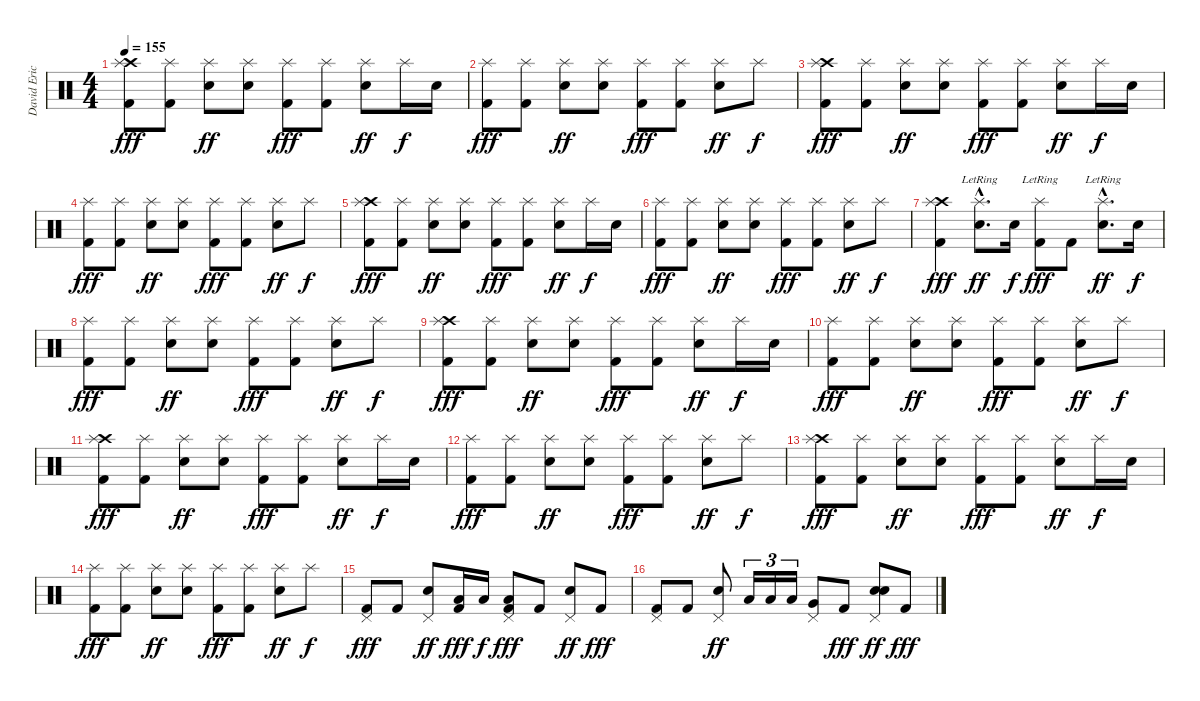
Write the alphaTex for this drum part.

\track ("David Eric Grohl" "David Eric") {instrument percussion}
\staff {score}
\articulation defaults
\ts (4 4)
\tempo 155
\clef neutral
\ks c
("Crash high (hit)" "Splash (hit)" "Kick (hit) 2").8{dy fff} ("Splash (hit)" "Kick (hit) 2").8 ("Splash (hit)" "Electric Snare (hit)").8{dy ff} ("Splash (hit)" "Electric Snare (hit)").8 ("Splash (hit)" "Kick (hit) 2").8{dy fff} ("Splash (hit)" "Kick (hit) 2").8 ("Splash (hit)" "Electric Snare (hit)").8{dy ff} "Splash (hit)".16{dy f} "Electric Snare (hit)".16 |
("Splash (hit)" "Kick (hit) 2").8{dy fff} ("Splash (hit)" "Kick (hit) 2").8 ("Splash (hit)" "Electric Snare (hit)").8{dy ff} ("Splash (hit)" "Electric Snare (hit)").8 ("Splash (hit)" "Kick (hit) 2").8{dy fff} ("Splash (hit)" "Kick (hit) 2").8 ("Splash (hit)" "Electric Snare (hit)").8{dy ff} "Splash (hit)".8{dy f} |
("Crash high (hit)" "Splash (hit)" "Kick (hit) 2").8{dy fff} ("Splash (hit)" "Kick (hit) 2").8 ("Splash (hit)" "Electric Snare (hit)").8{dy ff} ("Splash (hit)" "Electric Snare (hit)").8 ("Splash (hit)" "Kick (hit) 2").8{dy fff} ("Splash (hit)" "Kick (hit) 2").8 ("Splash (hit)" "Electric Snare (hit)").8{dy ff} "Splash (hit)".16{dy f} "Electric Snare (hit)".16 |
("Splash (hit)" "Kick (hit) 2").8{dy fff} ("Splash (hit)" "Kick (hit) 2").8 ("Splash (hit)" "Electric Snare (hit)").8{dy ff} ("Splash (hit)" "Electric Snare (hit)").8 ("Splash (hit)" "Kick (hit) 2").8{dy fff} ("Splash (hit)" "Kick (hit) 2").8 ("Splash (hit)" "Electric Snare (hit)").8{dy ff} "Splash (hit)".8{dy f} |
("Crash high (hit)" "Splash (hit)" "Kick (hit) 2").8{dy fff} ("Splash (hit)" "Kick (hit) 2").8 ("Splash (hit)" "Electric Snare (hit)").8{dy ff} ("Splash (hit)" "Electric Snare (hit)").8 ("Splash (hit)" "Kick (hit) 2").8{dy fff} ("Splash (hit)" "Kick (hit) 2").8 ("Splash (hit)" "Electric Snare (hit)").8{dy ff} "Splash (hit)".16{dy f} "Electric Snare (hit)".16 |
("Splash (hit)" "Kick (hit) 2").8{dy fff} ("Splash (hit)" "Kick (hit) 2").8 ("Splash (hit)" "Electric Snare (hit)").8{dy ff} ("Splash (hit)" "Electric Snare (hit)").8 ("Splash (hit)" "Kick (hit) 2").8{dy fff} ("Splash (hit)" "Kick (hit) 2").8 ("Splash (hit)" "Electric Snare (hit)").8{dy ff} "Splash (hit)".8{dy f} |
("Crash high (hit)" "Splash (hit)" "Kick (hit) 2").4{dy fff} ("Splash (hit)"{hac lr} "Electric Snare (hit)"{hac}).8{d dy ff} "Electric Snare (hit)".16{dy f} ("Splash (hit)"{lr} "Kick (hit) 2").8{dy fff} "Kick (hit) 2".8 ("Splash (hit)"{hac lr} "Electric Snare (hit)"{hac}).8{d dy ff} "Electric Snare (hit)".16{dy f} |
("Splash (hit)" "Kick (hit) 2").8{dy fff} ("Splash (hit)" "Kick (hit) 2").8 ("Splash (hit)" "Electric Snare (hit)").8{dy ff} ("Splash (hit)" "Electric Snare (hit)").8 ("Splash (hit)" "Kick (hit) 2").8{dy fff} ("Splash (hit)" "Kick (hit) 2").8 ("Splash (hit)" "Electric Snare (hit)").8{dy ff} "Splash (hit)".8{dy f} |
("Crash high (hit)" "Splash (hit)" "Kick (hit) 2").8{dy fff} ("Splash (hit)" "Kick (hit) 2").8 ("Splash (hit)" "Electric Snare (hit)").8{dy ff} ("Splash (hit)" "Electric Snare (hit)").8 ("Splash (hit)" "Kick (hit) 2").8{dy fff} ("Splash (hit)" "Kick (hit) 2").8 ("Splash (hit)" "Electric Snare (hit)").8{dy ff} "Splash (hit)".16{dy f} "Electric Snare (hit)".16 |
("Splash (hit)" "Kick (hit) 2").8{dy fff} ("Splash (hit)" "Kick (hit) 2").8 ("Splash (hit)" "Electric Snare (hit)").8{dy ff} ("Splash (hit)" "Electric Snare (hit)").8 ("Splash (hit)" "Kick (hit) 2").8{dy fff} ("Splash (hit)" "Kick (hit) 2").8 ("Splash (hit)" "Electric Snare (hit)").8{dy ff} "Splash (hit)".8{dy f} |
("Crash high (hit)" "Splash (hit)" "Kick (hit) 2").8{dy fff} ("Splash (hit)" "Kick (hit) 2").8 ("Splash (hit)" "Electric Snare (hit)").8{dy ff} ("Splash (hit)" "Electric Snare (hit)").8 ("Splash (hit)" "Kick (hit) 2").8{dy fff} ("Splash (hit)" "Kick (hit) 2").8 ("Splash (hit)" "Electric Snare (hit)").8{dy ff} "Splash (hit)".16{dy f} "Electric Snare (hit)".16 |
("Splash (hit)" "Kick (hit) 2").8{dy fff} ("Splash (hit)" "Kick (hit) 2").8 ("Splash (hit)" "Electric Snare (hit)").8{dy ff} ("Splash (hit)" "Electric Snare (hit)").8 ("Splash (hit)" "Kick (hit) 2").8{dy fff} ("Splash (hit)" "Kick (hit) 2").8 ("Splash (hit)" "Electric Snare (hit)").8{dy ff} "Splash (hit)".8{dy f} |
("Crash high (hit)" "Splash (hit)" "Kick (hit) 2").8{dy fff} ("Splash (hit)" "Kick (hit) 2").8 ("Splash (hit)" "Electric Snare (hit)").8{dy ff} ("Splash (hit)" "Electric Snare (hit)").8 ("Splash (hit)" "Kick (hit) 2").8{dy fff} ("Splash (hit)" "Kick (hit) 2").8 ("Splash (hit)" "Electric Snare (hit)").8{dy ff} "Splash (hit)".16{dy f} "Electric Snare (hit)".16 |
("Splash (hit)" "Kick (hit) 2").8{dy fff} ("Splash (hit)" "Kick (hit) 2").8 ("Splash (hit)" "Electric Snare (hit)").8{dy ff} ("Splash (hit)" "Electric Snare (hit)").8 ("Splash (hit)" "Kick (hit) 2").8{dy fff} ("Splash (hit)" "Kick (hit) 2").8 ("Splash (hit)" "Electric Snare (hit)").8{dy ff} "Splash (hit)".8{dy f} |
("Pedal Hi-Hat (hit)" "Kick (hit) 2").8{dy fff} "Kick (hit) 2".8 ("Pedal Hi-Hat (hit)" "Electric Snare (hit)").8{dy ff} ("Low Tom (hit)" "Kick (hit) 2").16{dy fff} "Low Tom (hit)".16{dy f} ("Pedal Hi-Hat (hit)" "Low Tom (hit)" "Kick (hit) 2").8{dy fff} "Kick (hit) 2".8 ("Pedal Hi-Hat (hit)" "Electric Snare (hit)").8{dy ff} "Kick (hit) 2".8{dy fff} |
("Pedal Hi-Hat (hit)" "Kick (hit) 2").8 "Kick (hit) 2".8 ("Pedal Hi-Hat (hit)" "Electric Snare (hit)").8{dy ff} "Low Tom (hit)".16{tu (3 2)} "Low Tom (hit)".16{tu (3 2)} "Low Tom (hit)".16{tu (3 2)} ("Pedal Hi-Hat (hit)" "Very Low Tom (hit)").8 "Kick (hit) 2".8{dy fff} ("Pedal Hi-Hat (hit)" "Electric Snare (hit)" "Electric Snare (hit)").8{dy ff} "Kick (hit) 2".8{dy fff}
